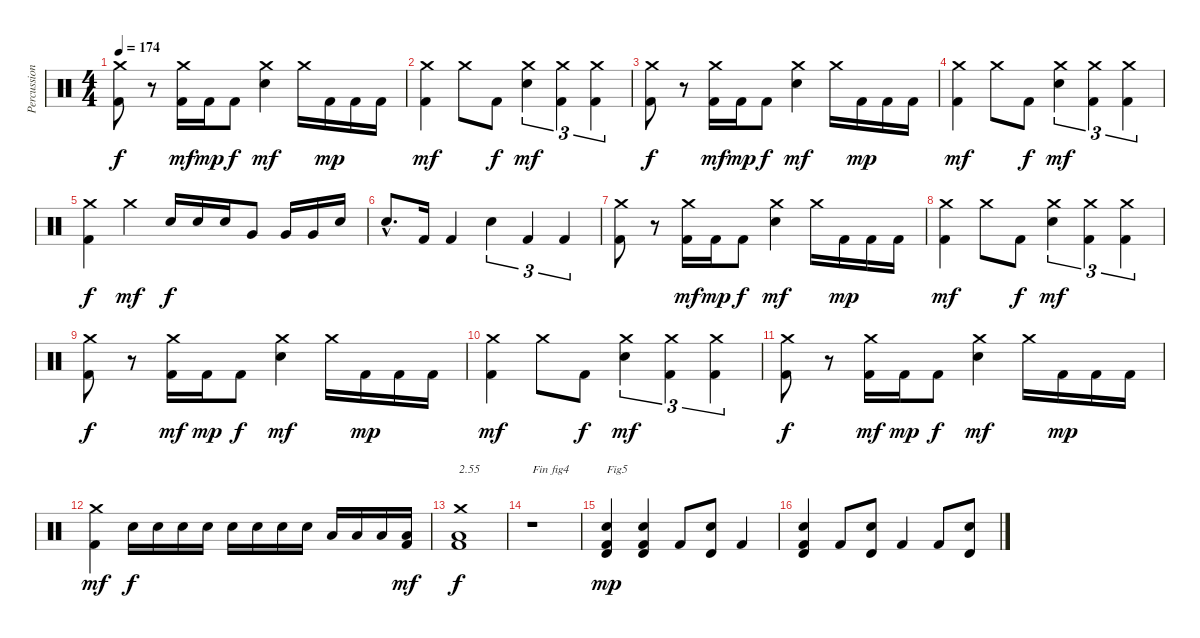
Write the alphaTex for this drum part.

\track ("Percussions" "Percussion") {instrument percussion}
\staff {score}
\articulation defaults
\ts (4 4)
\tempo 174
\clef neutral
\ks c
("Kick (hit) 2" "Crash medium (hit)").8{dy f} r.8 ("Kick (hit) 2" "Crash medium (hit)").16{dy mf} "Kick (hit) 2".16{dy mp} "Kick (hit) 2".8{dy f} ("Electric Snare (hit)" "Crash medium (hit)").4{dy mf} "Crash medium (hit)".16 "Kick (hit) 2".16{dy mp} "Kick (hit) 2".16 "Kick (hit) 2".16 |
("Kick (hit) 2" "Crash medium (hit)").4{dy mf} "Crash medium (hit)".8 "Kick (hit) 2".8{dy f} ("Electric Snare (hit)" "Crash medium (hit)").4{tu (3 2) dy mf} ("Kick (hit) 2" "Crash medium (hit)").4{tu (3 2)} ("Kick (hit) 2" "Crash medium (hit)").4{tu (3 2)} |
("Kick (hit) 2" "Crash medium (hit)").8{dy f} r.8 ("Kick (hit) 2" "Crash medium (hit)").16{dy mf} "Kick (hit) 2".16{dy mp} "Kick (hit) 2".8{dy f} ("Electric Snare (hit)" "Crash medium (hit)").4{dy mf} "Crash medium (hit)".16 "Kick (hit) 2".16{dy mp} "Kick (hit) 2".16 "Kick (hit) 2".16 |
("Kick (hit) 2" "Crash medium (hit)").4{dy mf} "Crash medium (hit)".8 "Kick (hit) 2".8{dy f} ("Electric Snare (hit)" "Crash medium (hit)").4{tu (3 2) dy mf} ("Kick (hit) 2" "Crash medium (hit)").4{tu (3 2)} ("Kick (hit) 2" "Crash medium (hit)").4{tu (3 2)} |
("Kick (hit) 2" "Crash medium (hit)").4{dy f} "Crash medium (hit)".4{dy mf} "Electric Snare (hit)".16{dy f} "Electric Snare (hit)".16 "Electric Snare (hit)".16 "Very Low Tom (hit)".8 "Very Low Tom (hit)".16 "Very Low Tom (hit)".16 "Electric Snare (hit)".16 |
"Electric Snare (hit)"{hac}.8{d} "Kick (hit) 2".16 "Kick (hit) 2".4 "Electric Snare (hit)".4{tu (3 2)} "Kick (hit) 2".4{tu (3 2)} "Kick (hit) 2".4{tu (3 2)} |
("Kick (hit) 2" "Crash medium (hit)").8 r.8 ("Kick (hit) 2" "Crash medium (hit)").16{dy mf} "Kick (hit) 2".16{dy mp} "Kick (hit) 2".8{dy f} ("Electric Snare (hit)" "Crash medium (hit)").4{dy mf} "Crash medium (hit)".16 "Kick (hit) 2".16{dy mp} "Kick (hit) 2".16 "Kick (hit) 2".16 |
("Kick (hit) 2" "Crash medium (hit)").4{dy mf} "Crash medium (hit)".8 "Kick (hit) 2".8{dy f} ("Electric Snare (hit)" "Crash medium (hit)").4{tu (3 2) dy mf} ("Kick (hit) 2" "Crash medium (hit)").4{tu (3 2)} ("Kick (hit) 2" "Crash medium (hit)").4{tu (3 2)} |
("Kick (hit) 2" "Crash medium (hit)").8{dy f} r.8 ("Kick (hit) 2" "Crash medium (hit)").16{dy mf} "Kick (hit) 2".16{dy mp} "Kick (hit) 2".8{dy f} ("Electric Snare (hit)" "Crash medium (hit)").4{dy mf} "Crash medium (hit)".16 "Kick (hit) 2".16{dy mp} "Kick (hit) 2".16 "Kick (hit) 2".16 |
("Kick (hit) 2" "Crash medium (hit)").4{dy mf} "Crash medium (hit)".8 "Kick (hit) 2".8{dy f} ("Electric Snare (hit)" "Crash medium (hit)").4{tu (3 2) dy mf} ("Kick (hit) 2" "Crash medium (hit)").4{tu (3 2)} ("Kick (hit) 2" "Crash medium (hit)").4{tu (3 2)} |
("Kick (hit) 2" "Crash medium (hit)").8{dy f} r.8 ("Kick (hit) 2" "Crash medium (hit)").16{dy mf} "Kick (hit) 2".16{dy mp} "Kick (hit) 2".8{dy f} ("Electric Snare (hit)" "Crash medium (hit)").4{dy mf} "Crash medium (hit)".16 "Kick (hit) 2".16{dy mp} "Kick (hit) 2".16 "Kick (hit) 2".16 |
("Kick (hit) 2" "Crash medium (hit)").4{dy mf} "Electric Snare (hit)".16{dy f} "Electric Snare (hit)".16 "Electric Snare (hit)".16 "Electric Snare (hit)".16 "Electric Snare (hit)".16 "Electric Snare (hit)".16 "Electric Snare (hit)".16 "Electric Snare (hit)".16 "Low Floor Tom (hit)".16 "Low Floor Tom (hit)".16 "Low Floor Tom (hit)".16 ("Kick (hit) 2" "Low Floor Tom (hit)").16{dy mf} |
("Kick (hit) 2" "Low Floor Tom (hit)" "Crash medium (hit)").1{txt "2.55" dy f} |
r.1{txt "Fin fig4"} |
("Kick (hit) 2" "Timbale high (hit)" "Electric Snare (hit)").4{txt "Fig5" dy mp} ("Kick (hit) 2" "Timbale high (hit)" "Electric Snare (hit)").4 "Kick (hit) 2".8 ("Timbale high (hit)" "Electric Snare (hit)").8 "Kick (hit) 2".4 |
("Kick (hit) 2" "Timbale high (hit)" "Electric Snare (hit)").4 "Kick (hit) 2".8 ("Timbale high (hit)" "Electric Snare (hit)").8 "Kick (hit) 2".4 "Kick (hit) 2".8 ("Timbale high (hit)" "Electric Snare (hit)").8
